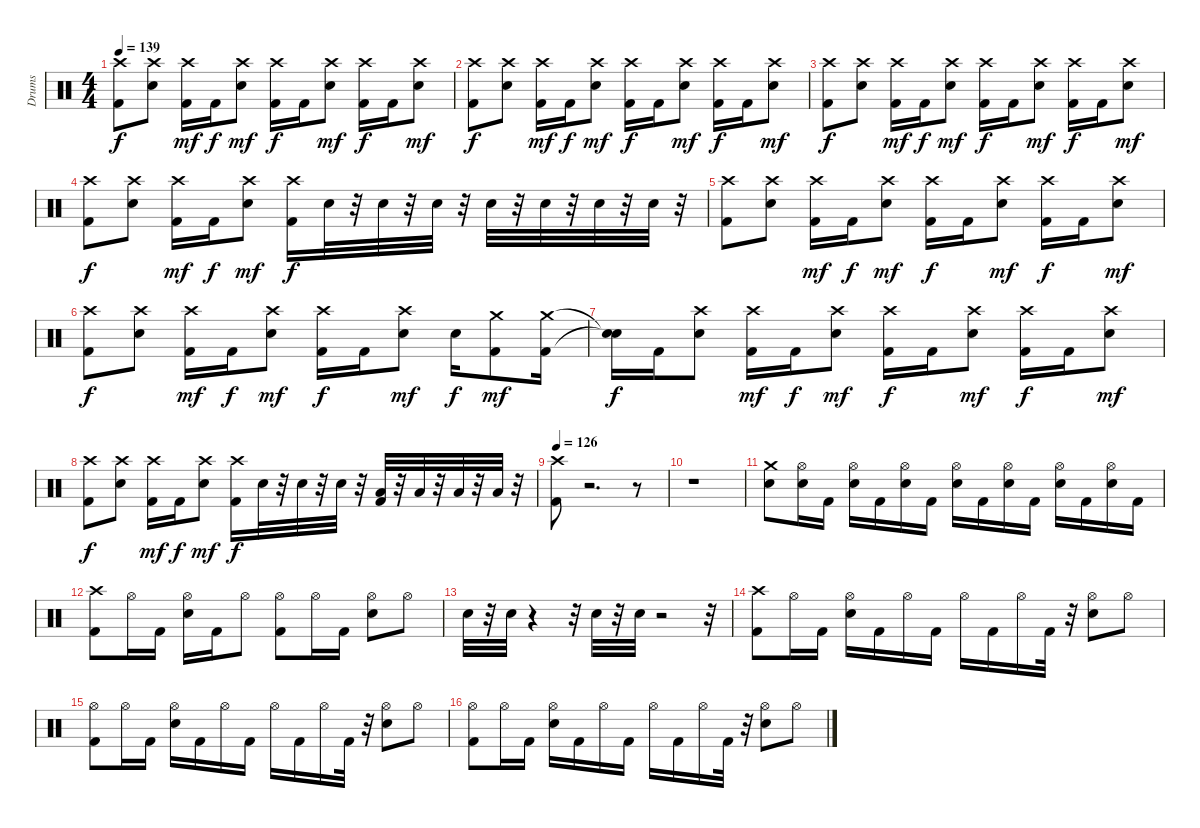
\track ("Drums" "Drums") {instrument percussion}
\staff {score}
\articulation defaults
\ts (4 4)
\tempo 139
\clef neutral
\ks c
("Crash high (hit)" "Kick (hit) 2").8{dy f} ("Electric Snare (hit)" "Crash high (hit)").8 ("Kick (hit) 2" "Crash high (hit)").16{dy mf} "Kick (hit) 2".16{dy f} ("Electric Snare (hit)" "Crash high (hit)").8{dy mf} ("Kick (hit) 2" "Crash high (hit)").16{dy f} "Kick (hit) 2".16 ("Electric Snare (hit)" "Crash high (hit)").8{dy mf} ("Kick (hit) 2" "Crash high (hit)").16{dy f} "Kick (hit) 2".16 ("Electric Snare (hit)" "Crash high (hit)").8{dy mf} |
("Crash high (hit)" "Kick (hit) 2").8{dy f} ("Electric Snare (hit)" "Crash high (hit)").8 ("Kick (hit) 2" "Crash high (hit)").16{dy mf} "Kick (hit) 2".16{dy f} ("Electric Snare (hit)" "Crash high (hit)").8{dy mf} ("Kick (hit) 2" "Crash high (hit)").16{dy f} "Kick (hit) 2".16 ("Electric Snare (hit)" "Crash high (hit)").8{dy mf} ("Kick (hit) 2" "Crash high (hit)").16{dy f} "Kick (hit) 2".16 ("Electric Snare (hit)" "Crash high (hit)").8{dy mf} |
("Crash high (hit)" "Kick (hit) 2").8{dy f} ("Electric Snare (hit)" "Crash high (hit)").8 ("Kick (hit) 2" "Crash high (hit)").16{dy mf} "Kick (hit) 2".16{dy f} ("Electric Snare (hit)" "Crash high (hit)").8{dy mf} ("Kick (hit) 2" "Crash high (hit)").16{dy f} "Kick (hit) 2".16 ("Electric Snare (hit)" "Crash high (hit)").8{dy mf} ("Kick (hit) 2" "Crash high (hit)").16{dy f} "Kick (hit) 2".16 ("Electric Snare (hit)" "Crash high (hit)").8{dy mf} |
("Crash high (hit)" "Kick (hit) 2").8{dy f} ("Electric Snare (hit)" "Crash high (hit)").8 ("Kick (hit) 2" "Crash high (hit)").16{dy mf} "Kick (hit) 2".16{dy f} ("Electric Snare (hit)" "Crash high (hit)").8{dy mf} ("Kick (hit) 2" "Crash high (hit)").16{dy f} "Electric Snare (hit)".32 r.32 "Electric Snare (hit)".32 r.32 "Electric Snare (hit)".32 r.32 "Electric Snare (hit)".32 r.32 "Electric Snare (hit)".32 r.32 "Electric Snare (hit)".32 r.32 "Electric Snare (hit)".32 r.32 |
("Crash high (hit)" "Kick (hit) 2").8 ("Electric Snare (hit)" "Crash high (hit)").8 ("Kick (hit) 2" "Crash high (hit)").16{dy mf} "Kick (hit) 2".16{dy f} ("Electric Snare (hit)" "Crash high (hit)").8{dy mf} ("Kick (hit) 2" "Crash high (hit)").16{dy f} "Kick (hit) 2".16 ("Electric Snare (hit)" "Crash high (hit)").8{dy mf} ("Kick (hit) 2" "Crash high (hit)").16{dy f} "Kick (hit) 2".16 ("Electric Snare (hit)" "Crash high (hit)").8{dy mf} |
("Crash high (hit)" "Kick (hit) 2").8{dy f} ("Electric Snare (hit)" "Crash high (hit)").8 ("Kick (hit) 2" "Crash high (hit)").16{dy mf} "Kick (hit) 2".16{dy f} ("Electric Snare (hit)" "Crash high (hit)").8{dy mf} ("Kick (hit) 2" "Crash high (hit)").16{dy f} "Kick (hit) 2".16 ("Electric Snare (hit)" "Crash high (hit)").8{dy mf} "Electric Snare (hit)".16{dy f} ("Kick (hit) 2" "Crash medium (hit)").8{dy mf} ("Crash medium (hit)" "Kick (hit) 2").16 |
("Snare (hit)"{t} "Snare (hit)"{t}).16{dy f} "Kick (hit) 2".16 ("Electric Snare (hit)" "Crash high (hit)").8 ("Kick (hit) 2" "Crash high (hit)").16{dy mf} "Kick (hit) 2".16{dy f} ("Electric Snare (hit)" "Crash high (hit)").8{dy mf} ("Kick (hit) 2" "Crash high (hit)").16{dy f} "Kick (hit) 2".16 ("Electric Snare (hit)" "Crash high (hit)").8{dy mf} ("Kick (hit) 2" "Crash high (hit)").16{dy f} "Kick (hit) 2".16 ("Electric Snare (hit)" "Crash high (hit)").8{dy mf} |
("Crash high (hit)" "Kick (hit) 2").8{dy f} ("Electric Snare (hit)" "Crash high (hit)").8 ("Kick (hit) 2" "Crash high (hit)").16{dy mf} "Kick (hit) 2".16{dy f} ("Electric Snare (hit)" "Crash high (hit)").8{dy mf} ("Kick (hit) 2" "Crash high (hit)").16{dy f} "Electric Snare (hit)".32 r.32 "Electric Snare (hit)".32 r.32 "Electric Snare (hit)".32 r.32 ("Kick (hit) 2" "Low Tom (hit)").32 r.32 "Low Tom (hit)".32 r.32 "Low Tom (hit)".32 r.32 "Low Tom (hit)".32 r.32 |
\tempo 126
("Crash high (hit)" "Kick (hit) 2").8 r.2{d} r.8 |
r.1 |
("Electric Snare (hit)" "Crash medium (hit)").8 ("Electric Snare (hit)" "Hi-Hat (open)").16 "Kick (hit) 2".16 ("Electric Snare (hit)" "Hi-Hat (open)").16 "Kick (hit) 2".16 ("Electric Snare (hit)" "Hi-Hat (open)").16 "Kick (hit) 2".16 ("Electric Snare (hit)" "Hi-Hat (open)").16 "Kick (hit) 2".16 ("Electric Snare (hit)" "Hi-Hat (open)").16 "Kick (hit) 2".16 ("Electric Snare (hit)" "Hi-Hat (open)").16 "Kick (hit) 2".16 ("Electric Snare (hit)" "Hi-Hat (open)").16 "Kick (hit) 2".16 |
("Kick (hit) 2" "Crash high (hit)").8 "Hi-Hat (open)".16 "Kick (hit) 2".16 ("Hi-Hat (open)" "Electric Snare (hit)").16 "Kick (hit) 2".16 "Hi-Hat (open)".8 ("Hi-Hat (open)" "Kick (hit) 2").8 "Hi-Hat (open)".16 "Kick (hit) 2".16 ("Hi-Hat (open)" "Electric Snare (hit)").8 "Hi-Hat (open)".8 |
"Electric Snare (hit)".32 r.32 "Electric Snare (hit)".32 r.4 r.32 "Electric Snare (hit)".32 r.32 "Electric Snare (hit)".32 r.2 r.32 |
("Kick (hit) 2" "Crash high (hit)").8 "Hi-Hat (open)".16 "Kick (hit) 2".16 ("Hi-Hat (open)" "Electric Snare (hit)").16 "Kick (hit) 2".16 "Hi-Hat (open)".16 "Kick (hit) 2".16 "Hi-Hat (open)".16 "Kick (hit) 2".16 "Hi-Hat (open)".16 "Kick (hit) 2".32 r.32 ("Hi-Hat (open)" "Electric Snare (hit)").8 "Hi-Hat (open)".8 |
("Kick (hit) 2" "Hi-Hat (open)").8 "Hi-Hat (open)".16 "Kick (hit) 2".16 ("Hi-Hat (open)" "Electric Snare (hit)").16 "Kick (hit) 2".16 "Hi-Hat (open)".16 "Kick (hit) 2".16 "Hi-Hat (open)".16 "Kick (hit) 2".16 "Hi-Hat (open)".16 "Kick (hit) 2".32 r.32 ("Hi-Hat (open)" "Electric Snare (hit)").8 "Hi-Hat (open)".8 |
("Kick (hit) 2" "Hi-Hat (open)").8 "Hi-Hat (open)".16 "Kick (hit) 2".16 ("Hi-Hat (open)" "Electric Snare (hit)").16 "Kick (hit) 2".16 "Hi-Hat (open)".16 "Kick (hit) 2".16 "Hi-Hat (open)".16 "Kick (hit) 2".16 "Hi-Hat (open)".16 "Kick (hit) 2".32 r.32 ("Hi-Hat (open)" "Electric Snare (hit)").8 "Hi-Hat (open)".8
